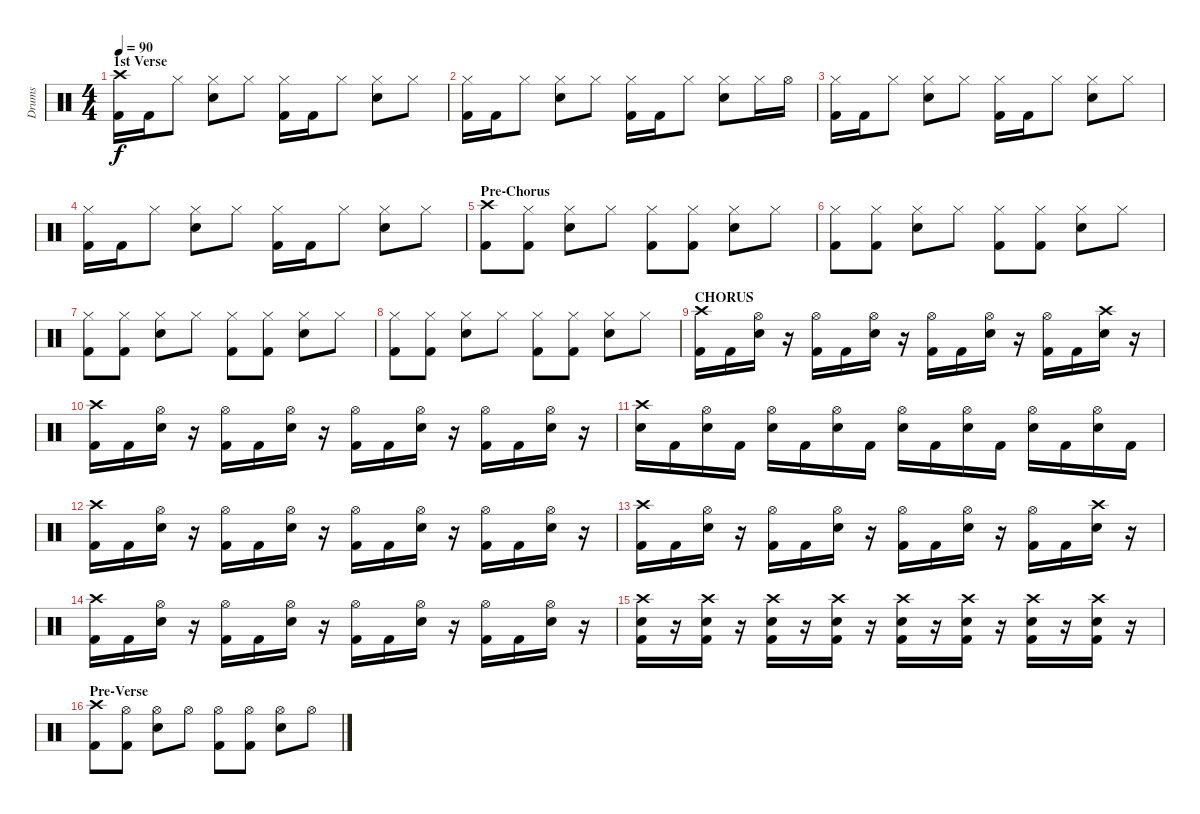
\track ("Drums" "Drums") {instrument percussion}
\staff {score}
\articulation defaults
\ts (4 4)
\section ("" "1st Verse")
\tempo 90
\clef neutral
\ks c
("Crash high (hit)" "Kick (hit) 2").16{dy f} "Kick (hit) 2".16 "Hi-Hat (closed)".8 ("Hi-Hat (closed)" "Electric Snare (hit)").8 "Hi-Hat (closed)".8 ("Hi-Hat (closed)" "Kick (hit) 2").16 "Kick (hit) 2".16 "Hi-Hat (closed)".8 ("Hi-Hat (closed)" "Electric Snare (hit)").8 "Hi-Hat (closed)".8 |
("Hi-Hat (closed)" "Kick (hit) 2").16 "Kick (hit) 2".16 "Hi-Hat (closed)".8 ("Hi-Hat (closed)" "Electric Snare (hit)").8 "Hi-Hat (closed)".8 ("Hi-Hat (closed)" "Kick (hit) 2").16 "Kick (hit) 2".16 "Hi-Hat (closed)".8 ("Hi-Hat (closed)" "Electric Snare (hit)").8 "Hi-Hat (closed)".16 "Hi-Hat (open)".16 |
("Hi-Hat (closed)" "Kick (hit) 2").16 "Kick (hit) 2".16 "Hi-Hat (closed)".8 ("Hi-Hat (closed)" "Electric Snare (hit)").8 "Hi-Hat (closed)".8 ("Hi-Hat (closed)" "Kick (hit) 2").16 "Kick (hit) 2".16 "Hi-Hat (closed)".8 ("Hi-Hat (closed)" "Electric Snare (hit)").8 "Hi-Hat (closed)".8 |
("Hi-Hat (closed)" "Kick (hit) 2").16 "Kick (hit) 2".16 "Hi-Hat (closed)".8 ("Hi-Hat (closed)" "Electric Snare (hit)").8 "Hi-Hat (closed)".8 ("Hi-Hat (closed)" "Kick (hit) 2").16 "Kick (hit) 2".16 "Hi-Hat (closed)".8 ("Hi-Hat (closed)" "Electric Snare (hit)").8 "Hi-Hat (closed)".8 |
\section ("" "Pre-Chorus")
("Crash high (hit)" "Kick (hit) 2").8 ("Hi-Hat (closed)" "Kick (hit) 2").8 ("Hi-Hat (closed)" "Electric Snare (hit)").8 "Hi-Hat (closed)".8 ("Hi-Hat (closed)" "Kick (hit) 2").8 ("Hi-Hat (closed)" "Kick (hit) 2").8 ("Hi-Hat (closed)" "Electric Snare (hit)").8 "Hi-Hat (closed)".8 |
("Hi-Hat (closed)" "Kick (hit) 2").8 ("Hi-Hat (closed)" "Kick (hit) 2").8 ("Hi-Hat (closed)" "Electric Snare (hit)").8 "Hi-Hat (closed)".8 ("Hi-Hat (closed)" "Kick (hit) 2").8 ("Hi-Hat (closed)" "Kick (hit) 2").8 ("Hi-Hat (closed)" "Electric Snare (hit)").8 "Hi-Hat (closed)".8 |
("Hi-Hat (closed)" "Kick (hit) 2").8 ("Hi-Hat (closed)" "Kick (hit) 2").8 ("Hi-Hat (closed)" "Electric Snare (hit)").8 "Hi-Hat (closed)".8 ("Hi-Hat (closed)" "Kick (hit) 2").8 ("Hi-Hat (closed)" "Kick (hit) 2").8 ("Hi-Hat (closed)" "Electric Snare (hit)").8 "Hi-Hat (closed)".8 |
("Hi-Hat (closed)" "Kick (hit) 2").8 ("Hi-Hat (closed)" "Kick (hit) 2").8 ("Hi-Hat (closed)" "Electric Snare (hit)").8 "Hi-Hat (closed)".8 ("Hi-Hat (closed)" "Kick (hit) 2").8 ("Hi-Hat (closed)" "Kick (hit) 2").8 ("Hi-Hat (closed)" "Electric Snare (hit)").8 "Hi-Hat (closed)".8 |
\section ("" "CHORUS")
("Crash high (hit)" "Kick (hit) 2").16 "Kick (hit) 2".16 ("Hi-Hat (open)" "Electric Snare (hit)").16 r.16 ("Hi-Hat (open)" "Kick (hit) 2").16 "Kick (hit) 2".16 ("Hi-Hat (open)" "Electric Snare (hit)").16 r.16 ("Hi-Hat (open)" "Kick (hit) 2").16 "Kick (hit) 2".16 ("Hi-Hat (open)" "Electric Snare (hit)").16 r.16 ("Hi-Hat (open)" "Kick (hit) 2").16 "Kick (hit) 2".16 ("Crash high (hit)" "Electric Snare (hit)").16 r.16 |
("Crash high (hit)" "Kick (hit) 2").16 "Kick (hit) 2".16 ("Hi-Hat (open)" "Electric Snare (hit)").16 r.16 ("Hi-Hat (open)" "Kick (hit) 2").16 "Kick (hit) 2".16 ("Hi-Hat (open)" "Electric Snare (hit)").16 r.16 ("Hi-Hat (open)" "Kick (hit) 2").16 "Kick (hit) 2".16 ("Hi-Hat (open)" "Electric Snare (hit)").16 r.16 ("Hi-Hat (open)" "Kick (hit) 2").16 "Kick (hit) 2".16 ("Hi-Hat (open)" "Electric Snare (hit)").16 r.16 |
("Crash high (hit)" "Electric Snare (hit)").16 "Kick (hit) 2".16 ("Hi-Hat (open)" "Electric Snare (hit)").16 "Kick (hit) 2".16 ("Hi-Hat (open)" "Electric Snare (hit)").16 "Kick (hit) 2".16 ("Hi-Hat (open)" "Electric Snare (hit)").16 "Kick (hit) 2".16 ("Hi-Hat (open)" "Electric Snare (hit)").16 "Kick (hit) 2".16 ("Hi-Hat (open)" "Electric Snare (hit)").16 "Kick (hit) 2".16 ("Hi-Hat (open)" "Electric Snare (hit)").16 "Kick (hit) 2".16 ("Hi-Hat (open)" "Electric Snare (hit)").16 "Kick (hit) 2".16 |
("Crash high (hit)" "Kick (hit) 2").16 "Kick (hit) 2".16 ("Hi-Hat (open)" "Electric Snare (hit)").16 r.16 ("Hi-Hat (open)" "Kick (hit) 2").16 "Kick (hit) 2".16 ("Hi-Hat (open)" "Electric Snare (hit)").16 r.16 ("Hi-Hat (open)" "Kick (hit) 2").16 "Kick (hit) 2".16 ("Hi-Hat (open)" "Electric Snare (hit)").16 r.16 ("Hi-Hat (open)" "Kick (hit) 2").16 "Kick (hit) 2".16 ("Hi-Hat (open)" "Electric Snare (hit)").16 r.16 |
("Crash high (hit)" "Kick (hit) 2").16 "Kick (hit) 2".16 ("Hi-Hat (open)" "Electric Snare (hit)").16 r.16 ("Hi-Hat (open)" "Kick (hit) 2").16 "Kick (hit) 2".16 ("Hi-Hat (open)" "Electric Snare (hit)").16 r.16 ("Hi-Hat (open)" "Kick (hit) 2").16 "Kick (hit) 2".16 ("Hi-Hat (open)" "Electric Snare (hit)").16 r.16 ("Hi-Hat (open)" "Kick (hit) 2").16 "Kick (hit) 2".16 ("Crash high (hit)" "Electric Snare (hit)").16 r.16 |
("Crash high (hit)" "Kick (hit) 2").16 "Kick (hit) 2".16 ("Hi-Hat (open)" "Electric Snare (hit)").16 r.16 ("Hi-Hat (open)" "Kick (hit) 2").16 "Kick (hit) 2".16 ("Hi-Hat (open)" "Electric Snare (hit)").16 r.16 ("Hi-Hat (open)" "Kick (hit) 2").16 "Kick (hit) 2".16 ("Hi-Hat (open)" "Electric Snare (hit)").16 r.16 ("Hi-Hat (open)" "Kick (hit) 2").16 "Kick (hit) 2".16 ("Hi-Hat (open)" "Electric Snare (hit)").16 r.16 |
("Crash high (hit)" "Electric Snare (hit)" "Kick (hit) 2").16 r.16 ("Crash high (hit)" "Electric Snare (hit)" "Kick (hit) 2").16 r.16 ("Crash high (hit)" "Electric Snare (hit)" "Kick (hit) 2").16 r.16 ("Crash high (hit)" "Electric Snare (hit)" "Kick (hit) 2").16 r.16 ("Crash high (hit)" "Electric Snare (hit)" "Kick (hit) 2").16 r.16 ("Crash high (hit)" "Electric Snare (hit)" "Kick (hit) 2").16 r.16 ("Crash high (hit)" "Electric Snare (hit)" "Kick (hit) 2").16 r.16 ("Crash high (hit)" "Electric Snare (hit)" "Kick (hit) 2").16 r.16 |
\section ("" "Pre-Verse")
("Crash high (hit)" "Kick (hit) 2").8 ("Hi-Hat (open)" "Kick (hit) 2").8 ("Hi-Hat (open)" "Electric Snare (hit)").8 "Hi-Hat (open)".8 ("Hi-Hat (open)" "Kick (hit) 2").8 ("Hi-Hat (open)" "Kick (hit) 2").8 ("Hi-Hat (open)" "Electric Snare (hit)").8 "Hi-Hat (open)".8
